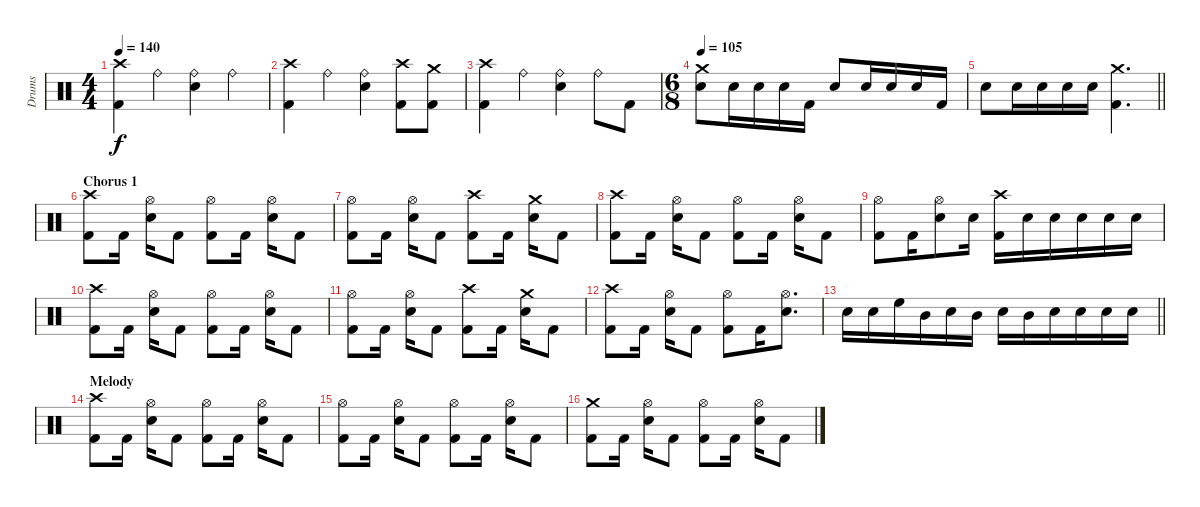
\track ("Drums" "Drums") {instrument percussion}
\staff {score}
\articulation defaults
\ts (4 4)
\tempo 140
\clef neutral
\ks c
("Crash high (hit)" "Kick (hit) 2").4{dy f} "Ride (bell)".4 ("Ride (bell)" "Electric Snare (hit)").4 "Ride (bell)".4 |
("Crash high (hit)" "Kick (hit) 2").4 "Ride (bell)".4 ("Ride (bell)" "Electric Snare (hit)").4 ("Crash high (hit)" "Kick (hit) 2").8 ("Crash medium (hit)" "Kick (hit) 2").8 |
("Crash high (hit)" "Kick (hit) 2").4 "Ride (bell)".4 ("Ride (bell)" "Electric Snare (hit)").4 "Ride (bell)".8 "Kick (hit) 2".8 |
\ts (6 8)
\tempo 105
("Crash medium (hit)" "Electric Snare (hit)").8 "Electric Snare (hit)".16 "Electric Snare (hit)".16 "Electric Snare (hit)".16 "Kick (hit) 2".16 "Electric Snare (hit)".8 "Electric Snare (hit)".16 "Electric Snare (hit)".16 "Electric Snare (hit)".16 "Kick (hit) 2".16 |
\barLineRight lightlight "Electric Snare (hit)".8 "Electric Snare (hit)".16 "Electric Snare (hit)".16 "Electric Snare (hit)".16 "Electric Snare (hit)".16
("Crash medium (hit)" "Kick (hit) 2").4{d} |
\section ("" "Chorus 1")
("Crash high (hit)" "Kick (hit) 2").8 "Kick (hit) 2".16{beam split} ("Hi-Hat (open)" "Electric Snare (hit)").16 "Kick (hit) 2".8 ("Hi-Hat (open)" "Kick (hit) 2").8 "Kick (hit) 2".16{beam split} ("Hi-Hat (open)" "Electric Snare (hit)").16 "Kick (hit) 2".8 |
("Hi-Hat (open)" "Kick (hit) 2").8 "Kick (hit) 2".16{beam split} ("Hi-Hat (open)" "Electric Snare (hit)").16 "Kick (hit) 2".8 ("Crash high (hit)" "Kick (hit) 2").8 "Kick (hit) 2".16{beam split} ("Crash medium (hit)" "Electric Snare (hit)").16 "Kick (hit) 2".8 |
("Crash high (hit)" "Kick (hit) 2").8 "Kick (hit) 2".16{beam split} ("Hi-Hat (open)" "Electric Snare (hit)").16 "Kick (hit) 2".8 ("Hi-Hat (open)" "Kick (hit) 2").8 "Kick (hit) 2".16{beam split} ("Hi-Hat (open)" "Electric Snare (hit)").16 "Kick (hit) 2".8 |
("Hi-Hat (open)" "Kick (hit) 2").8 "Kick (hit) 2".16 ("Hi-Hat (open)" "Electric Snare (hit)").8 "Electric Snare (hit)".16 ("Crash high (hit)" "Kick (hit) 2").16 "Electric Snare (hit)".16 "Electric Snare (hit)".16 "Electric Snare (hit)".16 "Electric Snare (hit)".16 "Electric Snare (hit)".16 |
("Crash high (hit)" "Kick (hit) 2").8 "Kick (hit) 2".16{beam split} ("Hi-Hat (open)" "Electric Snare (hit)").16 "Kick (hit) 2".8 ("Hi-Hat (open)" "Kick (hit) 2").8 "Kick (hit) 2".16{beam split} ("Hi-Hat (open)" "Electric Snare (hit)").16 "Kick (hit) 2".8 |
("Hi-Hat (open)" "Kick (hit) 2").8 "Kick (hit) 2".16{beam split} ("Hi-Hat (open)" "Electric Snare (hit)").16 "Kick (hit) 2".8 ("Crash high (hit)" "Kick (hit) 2").8 "Kick (hit) 2".16{beam split} ("Crash medium (hit)" "Electric Snare (hit)").16 "Kick (hit) 2".8 |
("Crash high (hit)" "Kick (hit) 2").8 "Kick (hit) 2".16{beam split} ("Hi-Hat (open)" "Electric Snare (hit)").16 "Kick (hit) 2".8 ("Hi-Hat (open)" "Kick (hit) 2").8 "Kick (hit) 2".16 ("Hi-Hat (open)" "Electric Snare (hit)").8{d} |
\barLineRight lightlight "Electric Snare (hit)".16 "Electric Snare (hit)".16 "High Floor Tom (hit)".16 "Mid Tom (hit)".16 "Electric Snare (hit)".16 "Mid Tom (hit)".16 "Electric Snare (hit)".16 "Mid Tom (hit)".16 "Electric Snare (hit)".16 "Electric Snare (hit)".16 "Electric Snare (hit)".16 "Electric Snare (hit)".16
|
\section ("" "Melody")
("Crash high (hit)" "Kick (hit) 2").8 "Kick (hit) 2".16{beam split} ("Hi-Hat (open)" "Electric Snare (hit)").16 "Kick (hit) 2".8 ("Hi-Hat (open)" "Kick (hit) 2").8 "Kick (hit) 2".16{beam split} ("Hi-Hat (open)" "Electric Snare (hit)").16 "Kick (hit) 2".8 |
("Hi-Hat (open)" "Kick (hit) 2").8 "Kick (hit) 2".16{beam split} ("Hi-Hat (open)" "Electric Snare (hit)").16 "Kick (hit) 2".8 ("Hi-Hat (open)" "Kick (hit) 2").8 "Kick (hit) 2".16{beam split} ("Hi-Hat (open)" "Electric Snare (hit)").16 "Kick (hit) 2".8 |
("Crash medium (hit)" "Kick (hit) 2").8 "Kick (hit) 2".16{beam split} ("Hi-Hat (open)" "Electric Snare (hit)").16 "Kick (hit) 2".8 ("Hi-Hat (open)" "Kick (hit) 2").8 "Kick (hit) 2".16{beam split} ("Hi-Hat (open)" "Electric Snare (hit)").16 "Kick (hit) 2".8
